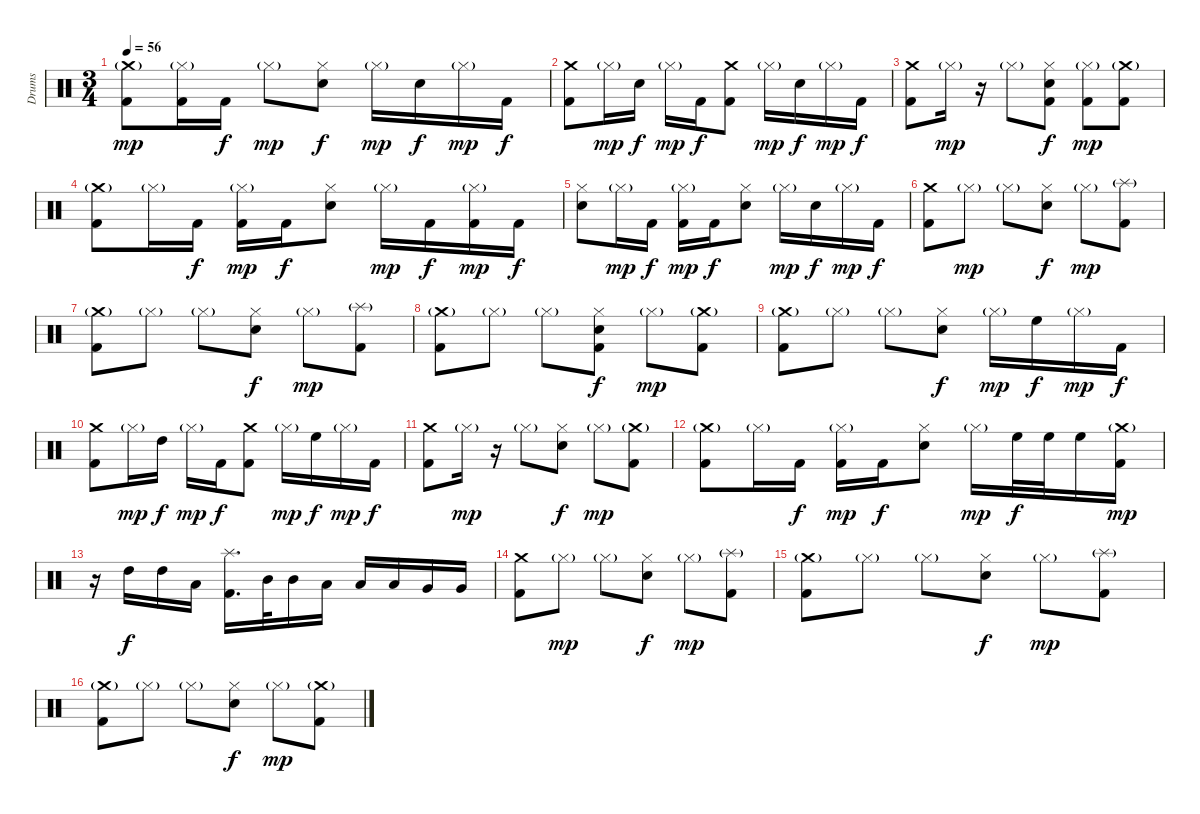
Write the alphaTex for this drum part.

\track ("Drums" "Drums") {instrument percussion}
\staff {score}
\articulation defaults
\ts (3 4)
\tempo 56
\clef neutral
\ks c
("Crash medium (hit)"{g} "Kick (hit) 2").8{dy mp} ("Hi-Hat (closed)"{g} "Kick (hit) 2").16 "Kick (hit) 2".16{dy f} "Hi-Hat (closed)"{g}.8{dy mp} ("Hi-Hat (closed)" "Electric Snare (hit)").8{dy f} "Hi-Hat (closed)"{g}.16{dy mp} "Electric Snare (hit)".16{dy f} "Hi-Hat (closed)"{g}.16{dy mp} "Kick (hit) 2".16{dy f} |
("Crash medium (hit)" "Kick (hit) 2").8 "Hi-Hat (closed)"{g}.16{dy mp} "Electric Snare (hit)".16{dy f} "Hi-Hat (closed)"{g}.16{dy mp} "Kick (hit) 2".16{dy f} ("Crash medium (hit)" "Kick (hit) 2").8 "Hi-Hat (closed)"{g}.16{dy mp} "Electric Snare (hit)".16{dy f} "Hi-Hat (closed)"{g}.16{dy mp} "Kick (hit) 2".16{dy f} |
("Crash medium (hit)" "Kick (hit) 2").8 "Hi-Hat (closed)"{g}.16{dy mp} r.16 "Hi-Hat (closed)"{g}.8 ("Hi-Hat (closed)" "Electric Snare (hit)" "Kick (hit) 2").8{dy f} ("Hi-Hat (closed)"{g} "Kick (hit) 2").8{dy mp} ("Crash medium (hit)"{g} "Kick (hit) 2").8 |
("Crash medium (hit)"{g} "Kick (hit) 2").8 "Hi-Hat (closed)"{g}.16 "Kick (hit) 2".16{dy f} ("Hi-Hat (closed)"{g} "Kick (hit) 2").16{dy mp} "Kick (hit) 2".16{dy f} ("Hi-Hat (closed)" "Electric Snare (hit)").8 "Hi-Hat (closed)"{g}.16{dy mp} "Kick (hit) 2".16{dy f} ("Hi-Hat (closed)"{g} "Kick (hit) 2").16{dy mp} "Kick (hit) 2".16{dy f} |
("Hi-Hat (closed)" "Electric Snare (hit)").8 "Hi-Hat (closed)"{g}.16{dy mp} "Kick (hit) 2".16{dy f} ("Hi-Hat (closed)"{g} "Kick (hit) 2").16{dy mp} "Kick (hit) 2".16{dy f} ("Hi-Hat (closed)" "Electric Snare (hit)").8 "Hi-Hat (closed)"{g}.16{dy mp} "Electric Snare (hit)".16{dy f} "Hi-Hat (closed)"{g}.16{dy mp} "Kick (hit) 2".16{dy f} |
("Crash medium (hit)" "Kick (hit) 2").8 "Hi-Hat (closed)"{g}.8{dy mp} "Hi-Hat (closed)"{g}.8 ("Hi-Hat (closed)" "Electric Snare (hit)").8{dy f} "Hi-Hat (closed)"{g}.8{dy mp} ("Splash (hit)"{g} "Kick (hit) 2").8 |
("Crash medium (hit)"{g} "Kick (hit) 2").8 "Hi-Hat (closed)"{g}.8 "Hi-Hat (closed)"{g}.8 ("Hi-Hat (closed)" "Electric Snare (hit)").8{dy f} "Hi-Hat (closed)"{g}.8{dy mp} ("Splash (hit)"{g} "Kick (hit) 2").8 |
("Crash medium (hit)"{g} "Kick (hit) 2").8 "Hi-Hat (closed)"{g}.8 "Hi-Hat (closed)"{g}.8 ("Hi-Hat (closed)" "Electric Snare (hit)" "Kick (hit) 2").8{dy f} "Hi-Hat (closed)"{g}.8{dy mp} ("Crash medium (hit)"{g} "Kick (hit) 2").8 |
("Crash medium (hit)"{g} "Kick (hit) 2").8 "Hi-Hat (closed)"{g}.8 "Hi-Hat (closed)"{g}.8 ("Hi-Hat (closed)" "Electric Snare (hit)").8{dy f} "Hi-Hat (closed)"{g}.16{dy mp} "High Floor Tom (hit)".16{dy f} "Hi-Hat (closed)"{g}.16{dy mp} "Kick (hit) 2".16{dy f} |
("Crash medium (hit)" "Kick (hit) 2").8 "Hi-Hat (closed)"{g}.16{dy mp} "High Tom (hit)".16{dy f} "Hi-Hat (closed)"{g}.16{dy mp} "Kick (hit) 2".16{dy f} ("Crash medium (hit)" "Kick (hit) 2").8 "Hi-Hat (closed)"{g}.16{dy mp} "High Floor Tom (hit)".16{dy f} "Hi-Hat (closed)"{g}.16{dy mp} "Kick (hit) 2".16{dy f} |
("Crash medium (hit)" "Kick (hit) 2").8 "Hi-Hat (closed)"{g}.16{dy mp} r.16 "Hi-Hat (closed)"{g}.8 ("Hi-Hat (closed)" "Electric Snare (hit)").8{dy f} "Hi-Hat (closed)"{g}.8{dy mp} ("Crash medium (hit)"{g} "Kick (hit) 2").8 |
("Crash medium (hit)"{g} "Kick (hit) 2").8 "Hi-Hat (closed)"{g}.16 "Kick (hit) 2".16{dy f} ("Hi-Hat (closed)"{g} "Kick (hit) 2").16{dy mp} "Kick (hit) 2".16{dy f} ("Hi-Hat (closed)" "Electric Snare (hit)").8 "Hi-Hat (closed)"{g}.16{dy mp} "High Floor Tom (hit)".32{dy f} "High Floor Tom (hit)".32 "High Floor Tom (hit)".16 ("Crash medium (hit)"{g} "Kick (hit) 2").16{dy mp} |
r.16 "High Tom (hit)".16{dy f} "High Tom (hit)".16 "Low Tom (hit)".16 ("Splash (hit)" "Kick (hit) 2").16{d} "Mid Tom (hit)".32 "Mid Tom (hit)".16 "Low Tom (hit)".16 "Low Floor Tom (hit)".16 "Low Floor Tom (hit)".16 "Very Low Tom (hit)".16 "Very Low Tom (hit)".16 |
("Crash medium (hit)" "Kick (hit) 2").8 "Hi-Hat (closed)"{g}.8{dy mp} "Hi-Hat (closed)"{g}.8 ("Hi-Hat (closed)" "Electric Snare (hit)").8{dy f} "Hi-Hat (closed)"{g}.8{dy mp} ("Splash (hit)"{g} "Kick (hit) 2").8 |
("Crash medium (hit)"{g} "Kick (hit) 2").8 "Hi-Hat (closed)"{g}.8 "Hi-Hat (closed)"{g}.8 ("Hi-Hat (closed)" "Electric Snare (hit)").8{dy f} "Hi-Hat (closed)"{g}.8{dy mp} ("Splash (hit)"{g} "Kick (hit) 2").8 |
("Crash medium (hit)"{g} "Kick (hit) 2").8 "Hi-Hat (closed)"{g}.8 "Hi-Hat (closed)"{g}.8 ("Hi-Hat (closed)" "Electric Snare (hit)").8{dy f} "Hi-Hat (closed)"{g}.8{dy mp} ("Crash medium (hit)"{g} "Kick (hit) 2").8
